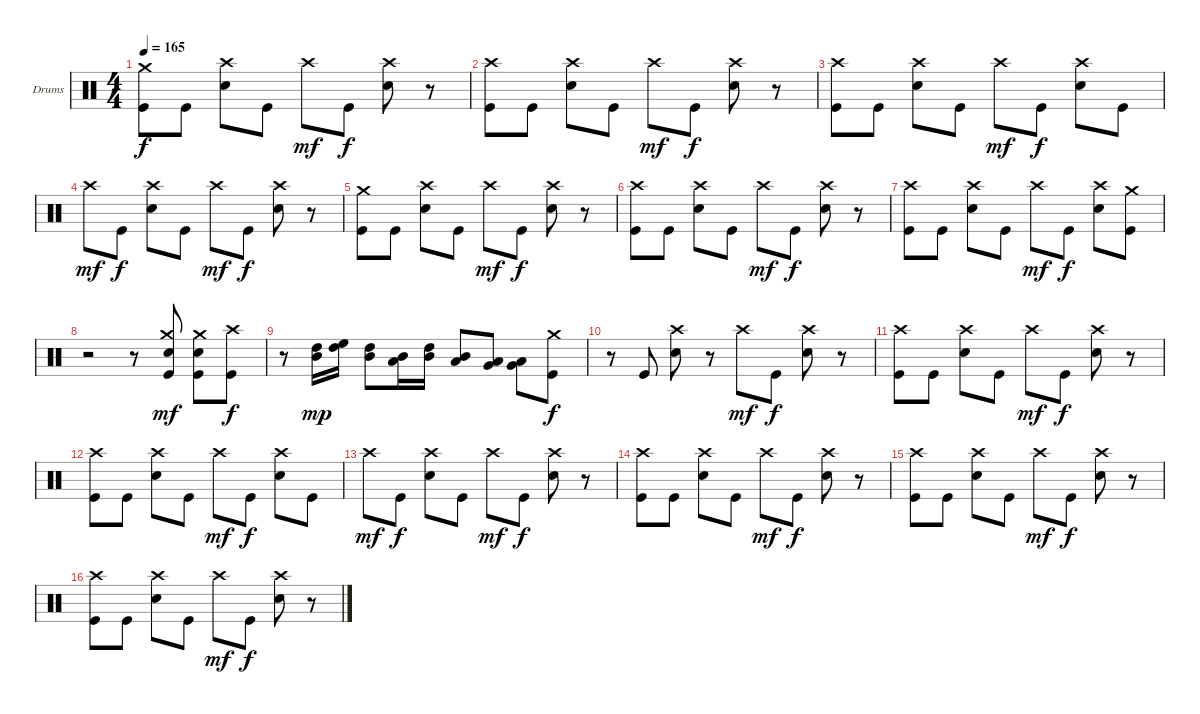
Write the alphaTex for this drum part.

\bracketExtendMode groupsimilarinstruments
\firstSystemTrackNameOrientation horizontal
\otherSystemsTrackNameOrientation horizontal
\track ("Drumkit" "Drums") {instrument percussion}
\staff {score}
\articulation defaults
\ts (4 4)
\tempo 165
\clef neutral
\ks c
("Kick (hit)" "Crash medium (hit)").8{dy f} "Kick (hit)".8 ("Snare (hit) 2" "Crash high (hit)").8 "Kick (hit)".8 "Crash high (hit)".8{dy mf} "Kick (hit)".8{dy f} ("Snare (hit) 2" "Crash high (hit)").8 r.8 |
("Kick (hit)" "Crash high (hit)").8 "Kick (hit)".8 ("Snare (hit) 2" "Crash high (hit)").8 "Kick (hit)".8 "Crash high (hit)".8{dy mf} "Kick (hit)".8{dy f} ("Snare (hit) 2" "Crash high (hit)").8 r.8 |
("Kick (hit)" "Crash high (hit)").8 "Kick (hit)".8 ("Snare (hit) 2" "Crash high (hit)").8 "Kick (hit)".8 "Crash high (hit)".8{dy mf} "Kick (hit)".8{dy f} ("Snare (hit) 2" "Crash high (hit)").8 "Kick (hit)".8 |
"Crash high (hit)".8{dy mf} "Kick (hit)".8{dy f} ("Snare (hit) 2" "Crash high (hit)").8 "Kick (hit)".8 "Crash high (hit)".8{dy mf} "Kick (hit)".8{dy f} ("Snare (hit) 2" "Crash high (hit)").8 r.8 |
("Kick (hit)" "Crash medium (hit)").8 "Kick (hit)".8 ("Snare (hit) 2" "Crash high (hit)").8 "Kick (hit)".8 "Crash high (hit)".8{dy mf} "Kick (hit)".8{dy f} ("Snare (hit) 2" "Crash high (hit)").8 r.8 |
("Kick (hit)" "Crash high (hit)").8 "Kick (hit)".8 ("Snare (hit) 2" "Crash high (hit)").8 "Kick (hit)".8 "Crash high (hit)".8{dy mf} "Kick (hit)".8{dy f} ("Snare (hit) 2" "Crash high (hit)").8 r.8 |
("Kick (hit)" "Crash high (hit)").8 "Kick (hit)".8 ("Snare (hit) 2" "Crash high (hit)").8 "Kick (hit)".8 "Crash high (hit)".8{dy mf} "Kick (hit)".8{dy f} ("Snare (hit) 2" "Crash high (hit)").8 ("Kick (hit)" "Crash medium (hit)").8 |
r.2 r.8 ("Kick (hit)" "Snare (hit) 2" "Crash medium (hit)").8{dy mf} ("Kick (hit)" "Snare (hit) 2" "Crash medium (hit)").8 ("Kick (hit)" "Crash high (hit)").8{dy f} |
r.8 ("High Tom (hit)" "Mid Tom (hit)").16{dy mp} ("High Floor Tom (hit)" "High Tom (hit)").16 ("High Tom (hit)" "Mid Tom (hit)").8 ("Mid Tom (hit)" "Low Tom (hit)").16 ("High Tom (hit)" "Mid Tom (hit)").16 ("Mid Tom (hit)" "Low Tom (hit)").8 ("Low Tom (hit)" "Very Low Tom (hit)").8 ("Very Low Tom (hit)" "Low Tom (hit)").8 ("Kick (hit)" "Crash medium (hit)").8{dy f} |
r.8 "Kick (hit)".8 ("Snare (hit) 2" "Crash high (hit)").8 r.8 "Crash high (hit)".8{dy mf} "Kick (hit)".8{dy f} ("Snare (hit) 2" "Crash high (hit)").8 r.8 |
("Kick (hit)" "Crash high (hit)").8 "Kick (hit)".8 ("Snare (hit) 2" "Crash high (hit)").8 "Kick (hit)".8 "Crash high (hit)".8{dy mf} "Kick (hit)".8{dy f} ("Snare (hit) 2" "Crash high (hit)").8 r.8 |
("Kick (hit)" "Crash high (hit)").8 "Kick (hit)".8 ("Snare (hit) 2" "Crash high (hit)").8 "Kick (hit)".8 "Crash high (hit)".8{dy mf} "Kick (hit)".8{dy f} ("Snare (hit) 2" "Crash high (hit)").8 "Kick (hit)".8 |
"Crash high (hit)".8{dy mf} "Kick (hit)".8{dy f} ("Snare (hit) 2" "Crash high (hit)").8 "Kick (hit)".8 "Crash high (hit)".8{dy mf} "Kick (hit)".8{dy f} ("Snare (hit) 2" "Crash high (hit)").8 r.8 |
("Kick (hit)" "Crash high (hit)").8 "Kick (hit)".8 ("Snare (hit) 2" "Crash high (hit)").8 "Kick (hit)".8 "Crash high (hit)".8{dy mf} "Kick (hit)".8{dy f} ("Snare (hit) 2" "Crash high (hit)").8 r.8 |
("Kick (hit)" "Crash high (hit)").8 "Kick (hit)".8 ("Snare (hit) 2" "Crash high (hit)").8 "Kick (hit)".8 "Crash high (hit)".8{dy mf} "Kick (hit)".8{dy f} ("Snare (hit) 2" "Crash high (hit)").8 r.8 |
("Kick (hit)" "Crash high (hit)").8 "Kick (hit)".8 ("Snare (hit) 2" "Crash high (hit)").8 "Kick (hit)".8 "Crash high (hit)".8{dy mf} "Kick (hit)".8{dy f} ("Snare (hit) 2" "Crash high (hit)").8 r.8
